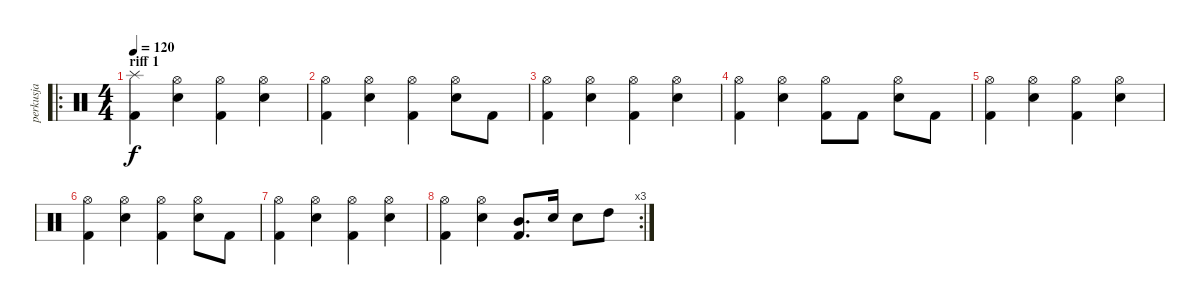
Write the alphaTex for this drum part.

\track ("perkusja" "perkusja") {instrument percussion}
\staff {score}
\articulation defaults
\ro
\ts (4 4)
\section ("" "riff 1")
\tempo 120
\clef neutral
\ks c
("Splash (hit)" "Kick (hit) 2").4{dy f} ("Hi-Hat (open)" "Electric Snare (hit)").4 ("Hi-Hat (open)" "Kick (hit) 2").4 ("Hi-Hat (open)" "Electric Snare (hit)").4 |
("Hi-Hat (open)" "Kick (hit) 2").4 ("Hi-Hat (open)" "Electric Snare (hit)").4 ("Hi-Hat (open)" "Kick (hit) 2").4 ("Hi-Hat (open)" "Electric Snare (hit)").8 "Kick (hit) 2".8 |
("Hi-Hat (open)" "Kick (hit) 2").4 ("Hi-Hat (open)" "Electric Snare (hit)").4 ("Hi-Hat (open)" "Kick (hit) 2").4 ("Hi-Hat (open)" "Electric Snare (hit)").4 |
("Hi-Hat (open)" "Kick (hit) 2").4 ("Hi-Hat (open)" "Electric Snare (hit)").4 ("Hi-Hat (open)" "Kick (hit) 2").8 "Kick (hit) 2".8 ("Hi-Hat (open)" "Electric Snare (hit)").8 "Kick (hit) 2".8 |
("Hi-Hat (open)" "Kick (hit) 2").4 ("Hi-Hat (open)" "Electric Snare (hit)").4 ("Hi-Hat (open)" "Kick (hit) 2").4 ("Hi-Hat (open)" "Electric Snare (hit)").4 |
("Hi-Hat (open)" "Kick (hit) 2").4 ("Hi-Hat (open)" "Electric Snare (hit)").4 ("Hi-Hat (open)" "Kick (hit) 2").4 ("Hi-Hat (open)" "Electric Snare (hit)").8 "Kick (hit) 2".8 |
("Hi-Hat (open)" "Kick (hit) 2").4 ("Hi-Hat (open)" "Electric Snare (hit)").4 ("Hi-Hat (open)" "Kick (hit) 2").4 ("Hi-Hat (open)" "Electric Snare (hit)").4 |
\rc 3
("Hi-Hat (open)" "Kick (hit) 2").4 ("Hi-Hat (open)" "Electric Snare (hit)").4 ("Mid Tom (hit)" "Kick (hit) 2").8{d} "Electric Snare (hit)".16 "Electric Snare (hit)".8 "High Tom (hit)".8
